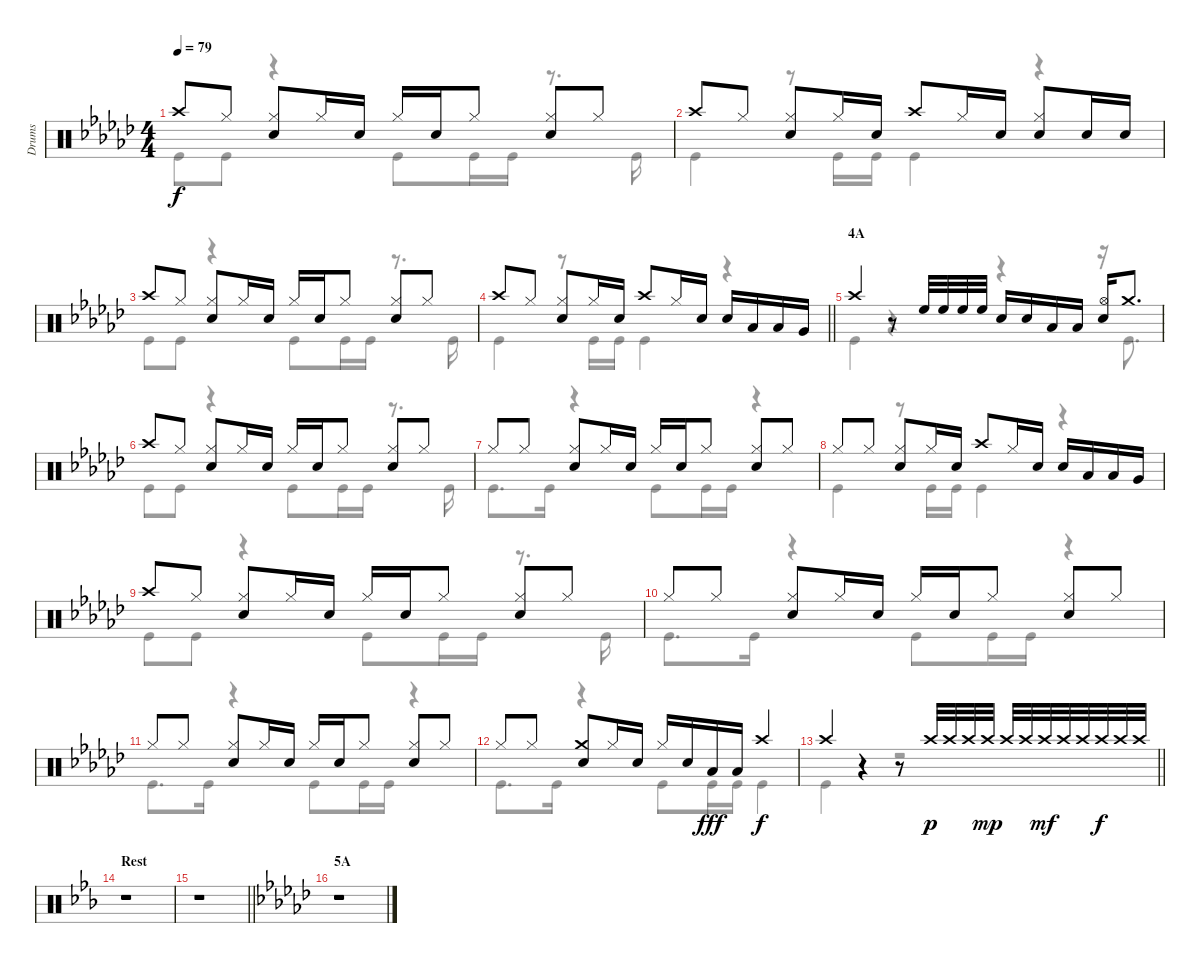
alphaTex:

\track ("Drums" "Drums") {instrument percussion}
\staff {score}
\articulation defaults
\voice
\ts (4 4)
\tempo 79
\clef neutral
\ks gb "Crash high (hit)".8{dy f} "Hi-Hat (closed)".8
("Hi-Hat (closed)" "Snare (hit) 2").8 "Hi-Hat (closed)".16 "Snare (hit) 2".16 "Hi-Hat (closed)".16 "Snare (hit) 2".16 "Hi-Hat (closed)".8 ("Hi-Hat (closed)" "Snare (hit) 2").8 "Hi-Hat (closed)".8 |
"Crash high (hit)".8 "Hi-Hat (closed)".8 ("Hi-Hat (closed)" "Snare (hit) 2").8 "Hi-Hat (closed)".16 "Snare (hit) 2".16 "Crash high (hit)".8 "Hi-Hat (closed)".16 "Snare (hit) 2".16 ("Hi-Hat (closed)" "Snare (hit) 2").8 "Snare (hit) 2".16 "Snare (hit) 2".16 |
"Crash high (hit)".8 "Hi-Hat (closed)".8 ("Hi-Hat (closed)" "Snare (hit) 2").8 "Hi-Hat (closed)".16 "Snare (hit) 2".16 "Hi-Hat (closed)".16 "Snare (hit) 2".16 "Hi-Hat (closed)".8 ("Hi-Hat (closed)" "Snare (hit) 2").8 "Hi-Hat (closed)".8 |
\barLineRight lightlight "Crash high (hit)".8 "Hi-Hat (closed)".8
("Hi-Hat (closed)" "Snare (hit) 2").8 "Hi-Hat (closed)".16 "Snare (hit) 2".16 "Crash high (hit)".8 "Hi-Hat (closed)".16 "Snare (hit) 2".16 "Snare (hit) 2".16 "Low Tom (hit)".16 "Low Tom (hit)".16 "Very Low Tom (hit)".16 |
\section ("" "4A")
"Crash high (hit)".4 r.8 "High Floor Tom (hit)".32 "High Floor Tom (hit)".32 "High Floor Tom (hit)".32 "High Floor Tom (hit)".32 "Snare (hit) 2".16 "Snare (hit) 2".16 "Low Tom (hit)".16 "Low Tom (hit)".16 ("Hi-Hat (open)" "Snare (hit) 2").16 "Crash medium (hit)".8{d} |
"Crash high (hit)".8 "Hi-Hat (closed)".8 ("Hi-Hat (closed)" "Snare (hit) 2").8 "Hi-Hat (closed)".16 "Snare (hit) 2".16 "Hi-Hat (closed)".16 "Snare (hit) 2".16 "Hi-Hat (closed)".8 ("Hi-Hat (closed)" "Snare (hit) 2").8 "Hi-Hat (closed)".8 |
"Hi-Hat (closed)".8 "Hi-Hat (closed)".8 ("Hi-Hat (closed)" "Snare (hit) 2").8 "Hi-Hat (closed)".16 "Snare (hit) 2".16 "Hi-Hat (closed)".16 "Snare (hit) 2".16 "Hi-Hat (closed)".8 ("Hi-Hat (closed)" "Snare (hit) 2").8 "Hi-Hat (closed)".8 |
"Hi-Hat (closed)".8 "Hi-Hat (closed)".8 ("Hi-Hat (closed)" "Snare (hit) 2").8 "Hi-Hat (closed)".16 "Snare (hit) 2".16 "Crash high (hit)".8 "Hi-Hat (closed)".16 "Snare (hit) 2".16 "Snare (hit) 2".16 "Low Tom (hit)".16 "Low Tom (hit)".16 "Very Low Tom (hit)".16 |
"Crash high (hit)".8 "Hi-Hat (closed)".8 ("Hi-Hat (closed)" "Snare (hit) 2").8 "Hi-Hat (closed)".16 "Snare (hit) 2".16 "Hi-Hat (closed)".16 "Snare (hit) 2".16 "Hi-Hat (closed)".8 ("Hi-Hat (closed)" "Snare (hit) 2").8 "Hi-Hat (closed)".8 |
"Hi-Hat (closed)".8 "Hi-Hat (closed)".8 ("Hi-Hat (closed)" "Snare (hit) 2").8 "Hi-Hat (closed)".16 "Snare (hit) 2".16 "Hi-Hat (closed)".16 "Snare (hit) 2".16 "Hi-Hat (closed)".8 ("Hi-Hat (closed)" "Snare (hit) 2").8 "Hi-Hat (closed)".8 |
"Hi-Hat (closed)".8 "Hi-Hat (closed)".8 ("Hi-Hat (closed)" "Snare (hit) 2").8 "Hi-Hat (closed)".16 "Snare (hit) 2".16 "Hi-Hat (closed)".16 "Snare (hit) 2".16 "Hi-Hat (closed)".8 ("Hi-Hat (closed)" "Snare (hit) 2").8 "Hi-Hat (closed)".8 |
"Hi-Hat (closed)".8 "Hi-Hat (closed)".8 ("Crash medium (hit)" "Snare (hit) 2").8 "Hi-Hat (closed)".16 "Snare (hit) 2".16 "Hi-Hat (closed)".16 "Snare (hit) 2".16 "Low Tom (hit)".16{dy fff} "Low Tom (hit)".16 "Crash high (hit)".4{dy f} |
\barLineRight lightlight "Crash high (hit)".4
r.4 r.8 "Crash high (hit)".32{dy p} "Crash high (hit)".32 "Crash high (hit)".32 "Crash high (hit)".32{dy mp} "Crash high (hit)".32 "Crash high (hit)".32 "Crash high (hit)".32{dy mf} "Crash high (hit)".32 "Crash high (hit)".32 "Crash high (hit)".32{dy f} "Crash high (hit)".32 "Crash high (hit)".32 |
\section ("" "Rest")
\ks eb
r.1 |
\barLineRight lightlight
r.1 |
\section ("" "5A")
\ks gb
r.1
\voice
\clef neutral
\ottava regular
\simile none
\ks gb "Kick (hit)".8{dy f} "Kick (hit)".8
r.4 "Kick (hit)".8 "Kick (hit)".16 "Kick (hit)".16 r.8{d} "Kick (hit)".16 |
"Kick (hit)".4 r.8 "Kick (hit)".16 "Kick (hit)".16 "Kick (hit)".4 r.4 |
"Kick (hit)".8 "Kick (hit)".8 r.4 "Kick (hit)".8 "Kick (hit)".16 "Kick (hit)".16 r.8{d} "Kick (hit)".16 |
\barLineRight lightlight "Kick (hit)".4
r.8 "Kick (hit)".16 "Kick (hit)".16 "Kick (hit)".4 r.4 |
"Kick (hit)".4 r.4 r.4 r.16 "Kick (hit)".8{d} |
"Kick (hit)".8 "Kick (hit)".8 r.4 "Kick (hit)".8 "Kick (hit)".16 "Kick (hit)".16 r.8{d} "Kick (hit)".16 |
"Kick (hit)".8{d} "Kick (hit)".16 r.4 "Kick (hit)".8 "Kick (hit)".16 "Kick (hit)".16 r.4 |
"Kick (hit)".4 r.8 "Kick (hit)".16 "Kick (hit)".16 "Kick (hit)".4 r.4 |
"Kick (hit)".8 "Kick (hit)".8 r.4 "Kick (hit)".8 "Kick (hit)".16 "Kick (hit)".16 r.8{d} "Kick (hit)".16 |
"Kick (hit)".8{d} "Kick (hit)".16 r.4 "Kick (hit)".8 "Kick (hit)".16 "Kick (hit)".16 r.4 |
"Kick (hit)".8{d} "Kick (hit)".16 r.4 "Kick (hit)".8 "Kick (hit)".16 "Kick (hit)".16 r.4 |
"Kick (hit)".8{d} "Kick (hit)".16 r.4 "Kick (hit)".8 "Kick (hit)".16 "Kick (hit)".16 "Kick (hit)".4 |
\barLineRight lightlight "Kick (hit)".4
r.4 r.2 |
\ks eb
r.1 |
\barLineRight lightlight
r.1 |
\ks gb
r.1
